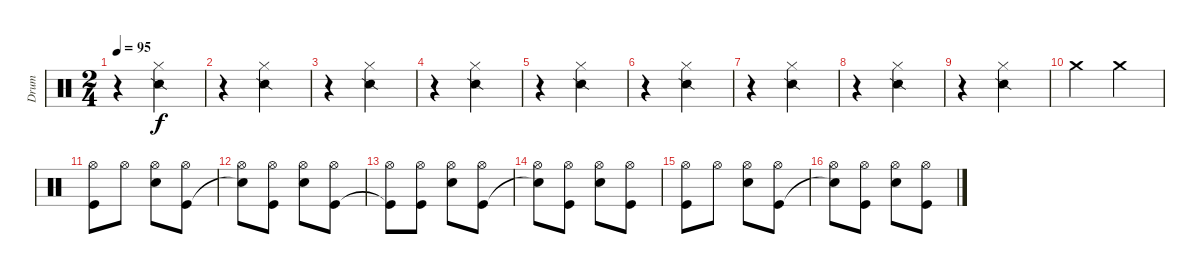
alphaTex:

\track ("Drum" "Drum") {instrument percussion}
\staff {score}
\articulation defaults
\ts (2 4)
\tempo 95
\clef neutral
\ks c
r.4{dy f} ("Hi-Hat (closed)" "Snare (side stick) 2").4 |
r.4 ("Hi-Hat (closed)" "Snare (side stick) 2").4 |
r.4 ("Hi-Hat (closed)" "Snare (side stick) 2").4 |
r.4 ("Hi-Hat (closed)" "Snare (side stick) 2").4 |
r.4 ("Hi-Hat (closed)" "Snare (side stick) 2").4 |
r.4 ("Hi-Hat (closed)" "Snare (side stick) 2").4 |
r.4 ("Hi-Hat (closed)" "Snare (side stick) 2").4 |
r.4 ("Hi-Hat (closed)" "Snare (side stick) 2").4 |
r.4 ("Hi-Hat (closed)" "Snare (side stick) 2").4 |
"Crash medium (hit)".4 "Crash medium (hit)".4 |
("Kick (hit)" "Hi-Hat (open)").8 "Hi-Hat (open)".8 ("Electric Snare (hit)" "Hi-Hat (open)").8 ("Kick (hit)" "Hi-Hat (open)").8 |
("Snare (hit)"{t} "Hi-Hat (open)").8 ("Kick (hit)" "Hi-Hat (open)").8 ("Electric Snare (hit)" "Hi-Hat (open)").8 ("Kick (hit)" "Hi-Hat (open)").8 |
("Kick (hit)"{t} "Hi-Hat (open)").8 ("Kick (hit)" "Hi-Hat (open)").8 ("Electric Snare (hit)" "Hi-Hat (open)").8 ("Kick (hit)" "Hi-Hat (open)").8 |
("Snare (hit)"{t} "Hi-Hat (open)").8 ("Kick (hit)" "Hi-Hat (open)").8 ("Electric Snare (hit)" "Hi-Hat (open)").8 ("Kick (hit)" "Hi-Hat (open)").8 |
("Kick (hit)" "Hi-Hat (open)").8 "Hi-Hat (open)".8 ("Electric Snare (hit)" "Hi-Hat (open)").8 ("Kick (hit)" "Hi-Hat (open)").8 |
("Snare (hit)"{t} "Hi-Hat (open)").8 ("Kick (hit)" "Hi-Hat (open)").8 ("Electric Snare (hit)" "Hi-Hat (open)").8 ("Kick (hit)" "Hi-Hat (open)").8
